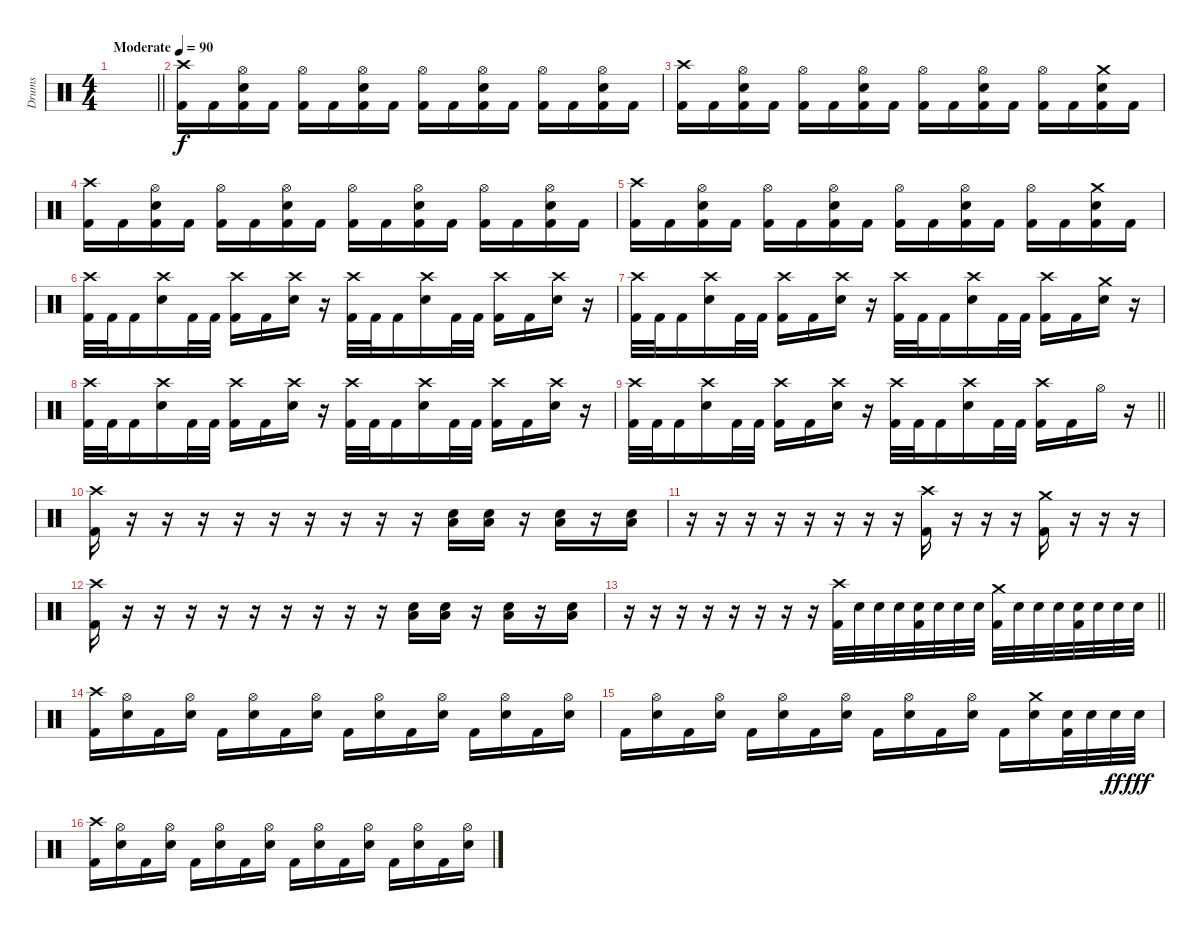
\track ("Drums" "Drums") {instrument percussion}
\staff {score}
\articulation defaults
\ts (4 4)
\tempo (90 "Moderate")
\clef neutral
\barLineRight lightlight
\ks c
|
\section ("" "")
("Crash high (hit)" "Kick (hit) 2").16 "Kick (hit) 2".16 ("Hi-Hat (open)" "Electric Snare (hit)" "Kick (hit) 2").16 "Kick (hit) 2".16 ("Hi-Hat (open)" "Kick (hit) 2").16 "Kick (hit) 2".16 ("Hi-Hat (open)" "Electric Snare (hit)" "Kick (hit) 2").16 "Kick (hit) 2".16 ("Hi-Hat (open)" "Kick (hit) 2").16 "Kick (hit) 2".16 ("Hi-Hat (open)" "Electric Snare (hit)" "Kick (hit) 2").16 "Kick (hit) 2".16 ("Hi-Hat (open)" "Kick (hit) 2").16 "Kick (hit) 2".16 ("Hi-Hat (open)" "Electric Snare (hit)" "Kick (hit) 2").16 "Kick (hit) 2".16 |
("Crash high (hit)" "Kick (hit) 2").16 "Kick (hit) 2".16 ("Hi-Hat (open)" "Electric Snare (hit)" "Kick (hit) 2").16 "Kick (hit) 2".16 ("Hi-Hat (open)" "Kick (hit) 2").16 "Kick (hit) 2".16 ("Hi-Hat (open)" "Electric Snare (hit)" "Kick (hit) 2").16 "Kick (hit) 2".16 ("Hi-Hat (open)" "Kick (hit) 2").16 "Kick (hit) 2".16 ("Hi-Hat (open)" "Electric Snare (hit)" "Kick (hit) 2").16 "Kick (hit) 2".16 ("Hi-Hat (open)" "Kick (hit) 2").16 "Kick (hit) 2".16 ("Crash medium (hit)" "Electric Snare (hit)" "Kick (hit) 2").16 "Kick (hit) 2".16 |
("Crash high (hit)" "Kick (hit) 2").16 "Kick (hit) 2".16 ("Hi-Hat (open)" "Electric Snare (hit)" "Kick (hit) 2").16 "Kick (hit) 2".16 ("Hi-Hat (open)" "Kick (hit) 2").16 "Kick (hit) 2".16 ("Hi-Hat (open)" "Electric Snare (hit)" "Kick (hit) 2").16 "Kick (hit) 2".16 ("Hi-Hat (open)" "Kick (hit) 2").16 "Kick (hit) 2".16 ("Hi-Hat (open)" "Electric Snare (hit)" "Kick (hit) 2").16 "Kick (hit) 2".16 ("Hi-Hat (open)" "Kick (hit) 2").16 "Kick (hit) 2".16 ("Hi-Hat (open)" "Electric Snare (hit)" "Kick (hit) 2").16 "Kick (hit) 2".16 |
("Crash high (hit)" "Kick (hit) 2").16 "Kick (hit) 2".16 ("Hi-Hat (open)" "Electric Snare (hit)" "Kick (hit) 2").16 "Kick (hit) 2".16 ("Hi-Hat (open)" "Kick (hit) 2").16 "Kick (hit) 2".16 ("Hi-Hat (open)" "Electric Snare (hit)" "Kick (hit) 2").16 "Kick (hit) 2".16 ("Hi-Hat (open)" "Kick (hit) 2").16 "Kick (hit) 2".16 ("Hi-Hat (open)" "Electric Snare (hit)" "Kick (hit) 2").16 "Kick (hit) 2".16 ("Hi-Hat (open)" "Kick (hit) 2").16 "Kick (hit) 2".16 ("Crash medium (hit)" "Electric Snare (hit)" "Kick (hit) 2").16 "Kick (hit) 2".16 |
("Crash high (hit)" "Kick (hit) 2").32 "Kick (hit) 2".32 "Kick (hit) 2".16 ("Crash high (hit)" "Electric Snare (hit)").16 "Kick (hit) 2".32 "Kick (hit) 2".32 ("Crash high (hit)" "Kick (hit) 2").16 "Kick (hit) 2".16 ("Crash high (hit)" "Electric Snare (hit)").16 r.16 ("Crash high (hit)" "Kick (hit) 2").32 "Kick (hit) 2".32 "Kick (hit) 2".16 ("Crash high (hit)" "Electric Snare (hit)").16 "Kick (hit) 2".32 "Kick (hit) 2".32 ("Crash high (hit)" "Kick (hit) 2").16 "Kick (hit) 2".16 ("Crash high (hit)" "Electric Snare (hit)").16 r.16 |
("Crash high (hit)" "Kick (hit) 2").32 "Kick (hit) 2".32 "Kick (hit) 2".16 ("Crash high (hit)" "Electric Snare (hit)").16 "Kick (hit) 2".32 "Kick (hit) 2".32 ("Crash high (hit)" "Kick (hit) 2").16 "Kick (hit) 2".16 ("Crash high (hit)" "Electric Snare (hit)").16 r.16 ("Crash high (hit)" "Kick (hit) 2").32 "Kick (hit) 2".32 "Kick (hit) 2".16 ("Crash high (hit)" "Electric Snare (hit)").16 "Kick (hit) 2".32 "Kick (hit) 2".32 ("Crash high (hit)" "Kick (hit) 2").16 "Kick (hit) 2".16 ("Crash medium (hit)" "Electric Snare (hit)").16 r.16 |
("Crash high (hit)" "Kick (hit) 2").32 "Kick (hit) 2".32 "Kick (hit) 2".16 ("Crash high (hit)" "Electric Snare (hit)").16 "Kick (hit) 2".32 "Kick (hit) 2".32 ("Crash high (hit)" "Kick (hit) 2").16 "Kick (hit) 2".16 ("Crash high (hit)" "Electric Snare (hit)").16 r.16 ("Crash high (hit)" "Kick (hit) 2").32 "Kick (hit) 2".32 "Kick (hit) 2".16 ("Crash high (hit)" "Electric Snare (hit)").16 "Kick (hit) 2".32 "Kick (hit) 2".32 ("Crash high (hit)" "Kick (hit) 2").16 "Kick (hit) 2".16 ("Crash high (hit)" "Electric Snare (hit)").16 r.16 |
\barLineRight lightlight
("Crash high (hit)" "Kick (hit) 2").32 "Kick (hit) 2".32 "Kick (hit) 2".16 ("Crash high (hit)" "Electric Snare (hit)").16 "Kick (hit) 2".32 "Kick (hit) 2".32 ("Crash high (hit)" "Kick (hit) 2").16 "Kick (hit) 2".16 ("Crash high (hit)" "Electric Snare (hit)").16 r.16 ("Crash high (hit)" "Kick (hit) 2").32 "Kick (hit) 2".32 "Kick (hit) 2".16 ("Crash high (hit)" "Electric Snare (hit)").16 "Kick (hit) 2".32 "Kick (hit) 2".32 ("Crash high (hit)" "Kick (hit) 2").16 "Kick (hit) 2".16 "Hi-Hat (open)".16 r.16 |
\section ("" "")
("Crash high (hit)" "Kick (hit) 2").16 r.16 r.16 r.16 r.16 r.16 r.16 r.16 r.16 r.16 ("Low Floor Tom (hit)" "Electric Snare (hit)").16 ("Low Floor Tom (hit)" "Electric Snare (hit)").16 r.16 ("Low Floor Tom (hit)" "Electric Snare (hit)").16 r.16 ("Low Floor Tom (hit)" "Electric Snare (hit)").16 |
r.16 r.16 r.16 r.16 r.16 r.16 r.16 r.16 ("Crash high (hit)" "Kick (hit) 2").16 r.16 r.16 r.16 ("Crash medium (hit)" "Kick (hit) 2").16 r.16 r.16 r.16 |
("Crash high (hit)" "Kick (hit) 2").16 r.16 r.16 r.16 r.16 r.16 r.16 r.16 r.16 r.16 ("Low Floor Tom (hit)" "Electric Snare (hit)").16 ("Low Floor Tom (hit)" "Electric Snare (hit)").16 r.16 ("Low Floor Tom (hit)" "Electric Snare (hit)").16 r.16 ("Low Floor Tom (hit)" "Electric Snare (hit)").16 |
\barLineRight lightlight
r.16 r.16 r.16 r.16 r.16 r.16 r.16 r.16 ("Crash high (hit)" "Kick (hit) 2").32 "Electric Snare (hit)".32 "Electric Snare (hit)".32 "Electric Snare (hit)".32 ("Electric Snare (hit)" "Kick (hit) 2").32 "Electric Snare (hit)".32 "Electric Snare (hit)".32 "Electric Snare (hit)".32 ("Crash medium (hit)" "Kick (hit) 2").32 "Electric Snare (hit)".32 "Electric Snare (hit)".32 "Electric Snare (hit)".32 ("Electric Snare (hit)" "Kick (hit) 2").32 "Electric Snare (hit)".32 "Electric Snare (hit)".32 "Electric Snare (hit)".32 |
\section ("" "")
("Crash high (hit)" "Kick (hit) 2").16 ("Hi-Hat (open)" "Electric Snare (hit)").16 "Kick (hit) 2".16 ("Hi-Hat (open)" "Electric Snare (hit)").16 "Kick (hit) 2".16 ("Hi-Hat (open)" "Electric Snare (hit)").16 "Kick (hit) 2".16 ("Hi-Hat (open)" "Electric Snare (hit)").16 "Kick (hit) 2".16 ("Hi-Hat (open)" "Electric Snare (hit)").16 "Kick (hit) 2".16 ("Hi-Hat (open)" "Electric Snare (hit)").16 "Kick (hit) 2".16 ("Hi-Hat (open)" "Electric Snare (hit)").16 "Kick (hit) 2".16 ("Hi-Hat (open)" "Electric Snare (hit)").16 |
"Kick (hit) 2".16 ("Hi-Hat (open)" "Electric Snare (hit)").16 "Kick (hit) 2".16 ("Hi-Hat (open)" "Electric Snare (hit)").16 "Kick (hit) 2".16 ("Hi-Hat (open)" "Electric Snare (hit)").16 "Kick (hit) 2".16 ("Hi-Hat (open)" "Electric Snare (hit)").16 "Kick (hit) 2".16 ("Hi-Hat (open)" "Electric Snare (hit)").16 "Kick (hit) 2".16 ("Hi-Hat (open)" "Electric Snare (hit)").16 "Kick (hit) 2".16 ("Crash medium (hit)" "Electric Snare (hit)").16 ("Electric Snare (hit)" "Kick (hit) 2").32 "Electric Snare (hit)".32{dy f} "Electric Snare (hit)".32{dy ff} "Electric Snare (hit)".32{dy fff} |
("Crash high (hit)" "Kick (hit) 2").16 ("Hi-Hat (open)" "Electric Snare (hit)").16 "Kick (hit) 2".16 ("Hi-Hat (open)" "Electric Snare (hit)").16 "Kick (hit) 2".16 ("Hi-Hat (open)" "Electric Snare (hit)").16 "Kick (hit) 2".16 ("Hi-Hat (open)" "Electric Snare (hit)").16 "Kick (hit) 2".16 ("Hi-Hat (open)" "Electric Snare (hit)").16 "Kick (hit) 2".16 ("Hi-Hat (open)" "Electric Snare (hit)").16 "Kick (hit) 2".16 ("Hi-Hat (open)" "Electric Snare (hit)").16 "Kick (hit) 2".16 ("Hi-Hat (open)" "Electric Snare (hit)").16
